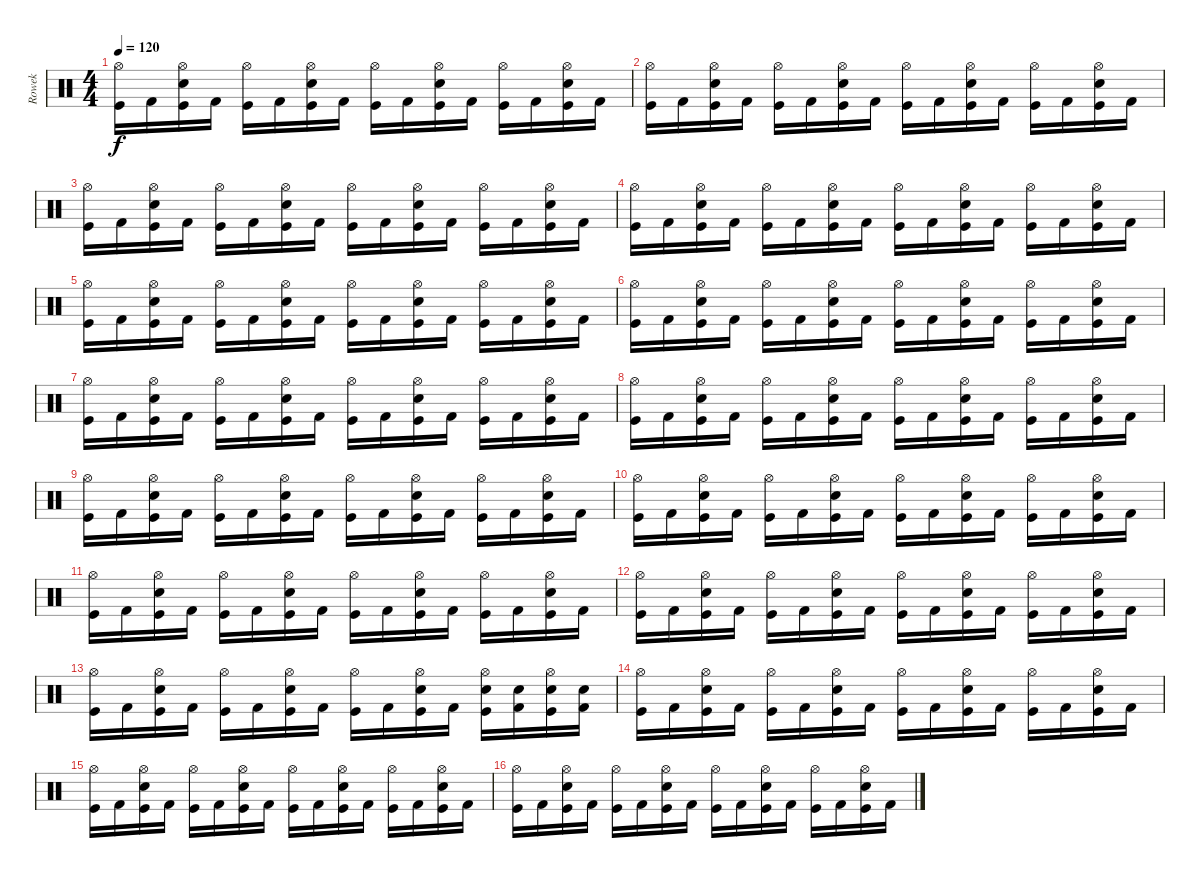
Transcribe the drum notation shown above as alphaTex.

\track ("Rowek" "Rowek") {instrument percussion}
\staff {score}
\articulation defaults
\ts (4 4)
\tempo 120
\clef neutral
\ks c
("Hi-Hat (open)" "Kick (hit)").16{dy f} "Kick (hit) 2".16 ("Hi-Hat (open)" "Snare (hit) 2" "Kick (hit)").16 "Kick (hit) 2".16 ("Hi-Hat (open)" "Kick (hit)").16 "Kick (hit) 2".16 ("Hi-Hat (open)" "Snare (hit) 2" "Kick (hit)").16 "Kick (hit) 2".16 ("Hi-Hat (open)" "Kick (hit)").16 "Kick (hit) 2".16 ("Hi-Hat (open)" "Snare (hit) 2" "Kick (hit)").16 "Kick (hit) 2".16 ("Hi-Hat (open)" "Kick (hit)").16 "Kick (hit) 2".16 ("Hi-Hat (open)" "Snare (hit) 2" "Kick (hit)").16 "Kick (hit) 2".16 |
("Hi-Hat (open)" "Kick (hit)").16 "Kick (hit) 2".16 ("Hi-Hat (open)" "Snare (hit) 2" "Kick (hit)").16 "Kick (hit) 2".16 ("Hi-Hat (open)" "Kick (hit)").16 "Kick (hit) 2".16 ("Hi-Hat (open)" "Snare (hit) 2" "Kick (hit)").16 "Kick (hit) 2".16 ("Hi-Hat (open)" "Kick (hit)").16 "Kick (hit) 2".16 ("Hi-Hat (open)" "Snare (hit) 2" "Kick (hit)").16 "Kick (hit) 2".16 ("Hi-Hat (open)" "Kick (hit)").16 "Kick (hit) 2".16 ("Hi-Hat (open)" "Snare (hit) 2" "Kick (hit)").16 "Kick (hit) 2".16 |
("Hi-Hat (open)" "Kick (hit)").16 "Kick (hit) 2".16 ("Hi-Hat (open)" "Snare (hit) 2" "Kick (hit)").16 "Kick (hit) 2".16 ("Hi-Hat (open)" "Kick (hit)").16 "Kick (hit) 2".16 ("Hi-Hat (open)" "Snare (hit) 2" "Kick (hit)").16 "Kick (hit) 2".16 ("Hi-Hat (open)" "Kick (hit)").16 "Kick (hit) 2".16 ("Hi-Hat (open)" "Snare (hit) 2" "Kick (hit)").16 "Kick (hit) 2".16 ("Hi-Hat (open)" "Kick (hit)").16 "Kick (hit) 2".16 ("Hi-Hat (open)" "Snare (hit) 2" "Kick (hit)").16 "Kick (hit) 2".16 |
("Hi-Hat (open)" "Kick (hit)").16 "Kick (hit) 2".16 ("Hi-Hat (open)" "Snare (hit) 2" "Kick (hit)").16 "Kick (hit) 2".16 ("Hi-Hat (open)" "Kick (hit)").16 "Kick (hit) 2".16 ("Hi-Hat (open)" "Snare (hit) 2" "Kick (hit)").16 "Kick (hit) 2".16 ("Hi-Hat (open)" "Kick (hit)").16 "Kick (hit) 2".16 ("Hi-Hat (open)" "Snare (hit) 2" "Kick (hit)").16 "Kick (hit) 2".16 ("Hi-Hat (open)" "Kick (hit)").16 "Kick (hit) 2".16 ("Hi-Hat (open)" "Snare (hit) 2" "Kick (hit)").16 "Kick (hit) 2".16 |
("Hi-Hat (open)" "Kick (hit)").16 "Kick (hit) 2".16 ("Hi-Hat (open)" "Snare (hit) 2" "Kick (hit)").16 "Kick (hit) 2".16 ("Hi-Hat (open)" "Kick (hit)").16 "Kick (hit) 2".16 ("Hi-Hat (open)" "Snare (hit) 2" "Kick (hit)").16 "Kick (hit) 2".16 ("Hi-Hat (open)" "Kick (hit)").16 "Kick (hit) 2".16 ("Hi-Hat (open)" "Snare (hit) 2" "Kick (hit)").16 "Kick (hit) 2".16 ("Hi-Hat (open)" "Kick (hit)").16 "Kick (hit) 2".16 ("Hi-Hat (open)" "Snare (hit) 2" "Kick (hit)").16 "Kick (hit) 2".16 |
("Hi-Hat (open)" "Kick (hit)").16 "Kick (hit) 2".16 ("Hi-Hat (open)" "Snare (hit) 2" "Kick (hit)").16 "Kick (hit) 2".16 ("Hi-Hat (open)" "Kick (hit)").16 "Kick (hit) 2".16 ("Hi-Hat (open)" "Snare (hit) 2" "Kick (hit)").16 "Kick (hit) 2".16 ("Hi-Hat (open)" "Kick (hit)").16 "Kick (hit) 2".16 ("Hi-Hat (open)" "Snare (hit) 2" "Kick (hit)").16 "Kick (hit) 2".16 ("Hi-Hat (open)" "Kick (hit)").16 "Kick (hit) 2".16 ("Hi-Hat (open)" "Snare (hit) 2" "Kick (hit)").16 "Kick (hit) 2".16 |
("Hi-Hat (open)" "Kick (hit)").16 "Kick (hit) 2".16 ("Hi-Hat (open)" "Snare (hit) 2" "Kick (hit)").16 "Kick (hit) 2".16 ("Hi-Hat (open)" "Kick (hit)").16 "Kick (hit) 2".16 ("Hi-Hat (open)" "Snare (hit) 2" "Kick (hit)").16 "Kick (hit) 2".16 ("Hi-Hat (open)" "Kick (hit)").16 "Kick (hit) 2".16 ("Hi-Hat (open)" "Snare (hit) 2" "Kick (hit)").16 "Kick (hit) 2".16 ("Hi-Hat (open)" "Kick (hit)").16 "Kick (hit) 2".16 ("Hi-Hat (open)" "Snare (hit) 2" "Kick (hit)").16 "Kick (hit) 2".16 |
("Hi-Hat (open)" "Kick (hit)").16 "Kick (hit) 2".16 ("Hi-Hat (open)" "Snare (hit) 2" "Kick (hit)").16 "Kick (hit) 2".16 ("Hi-Hat (open)" "Kick (hit)").16 "Kick (hit) 2".16 ("Hi-Hat (open)" "Snare (hit) 2" "Kick (hit)").16 "Kick (hit) 2".16 ("Hi-Hat (open)" "Kick (hit)").16 "Kick (hit) 2".16 ("Hi-Hat (open)" "Snare (hit) 2" "Kick (hit)").16 "Kick (hit) 2".16 ("Hi-Hat (open)" "Kick (hit)").16 "Kick (hit) 2".16 ("Hi-Hat (open)" "Snare (hit) 2" "Kick (hit)").16 "Kick (hit) 2".16 |
("Hi-Hat (open)" "Kick (hit)").16 "Kick (hit) 2".16 ("Hi-Hat (open)" "Snare (hit) 2" "Kick (hit)").16 "Kick (hit) 2".16 ("Hi-Hat (open)" "Kick (hit)").16 "Kick (hit) 2".16 ("Hi-Hat (open)" "Snare (hit) 2" "Kick (hit)").16 "Kick (hit) 2".16 ("Hi-Hat (open)" "Kick (hit)").16 "Kick (hit) 2".16 ("Hi-Hat (open)" "Snare (hit) 2" "Kick (hit)").16 "Kick (hit) 2".16 ("Hi-Hat (open)" "Kick (hit)").16 "Kick (hit) 2".16 ("Hi-Hat (open)" "Snare (hit) 2" "Kick (hit)").16 "Kick (hit) 2".16 |
("Hi-Hat (open)" "Kick (hit)").16 "Kick (hit) 2".16 ("Hi-Hat (open)" "Snare (hit) 2" "Kick (hit)").16 "Kick (hit) 2".16 ("Hi-Hat (open)" "Kick (hit)").16 "Kick (hit) 2".16 ("Hi-Hat (open)" "Snare (hit) 2" "Kick (hit)").16 "Kick (hit) 2".16 ("Hi-Hat (open)" "Kick (hit)").16 "Kick (hit) 2".16 ("Hi-Hat (open)" "Snare (hit) 2" "Kick (hit)").16 "Kick (hit) 2".16 ("Hi-Hat (open)" "Kick (hit)").16 "Kick (hit) 2".16 ("Hi-Hat (open)" "Snare (hit) 2" "Kick (hit)").16 "Kick (hit) 2".16 |
("Hi-Hat (open)" "Kick (hit)").16 "Kick (hit) 2".16 ("Hi-Hat (open)" "Snare (hit) 2" "Kick (hit)").16 "Kick (hit) 2".16 ("Hi-Hat (open)" "Kick (hit)").16 "Kick (hit) 2".16 ("Hi-Hat (open)" "Snare (hit) 2" "Kick (hit)").16 "Kick (hit) 2".16 ("Hi-Hat (open)" "Kick (hit)").16 "Kick (hit) 2".16 ("Hi-Hat (open)" "Snare (hit) 2" "Kick (hit)").16 "Kick (hit) 2".16 ("Hi-Hat (open)" "Kick (hit)").16 "Kick (hit) 2".16 ("Hi-Hat (open)" "Snare (hit) 2" "Kick (hit)").16 "Kick (hit) 2".16 |
("Hi-Hat (open)" "Kick (hit)").16 "Kick (hit) 2".16 ("Hi-Hat (open)" "Snare (hit) 2" "Kick (hit)").16 "Kick (hit) 2".16 ("Hi-Hat (open)" "Kick (hit)").16 "Kick (hit) 2".16 ("Hi-Hat (open)" "Snare (hit) 2" "Kick (hit)").16 "Kick (hit) 2".16 ("Hi-Hat (open)" "Kick (hit)").16 "Kick (hit) 2".16 ("Hi-Hat (open)" "Snare (hit) 2" "Kick (hit)").16 "Kick (hit) 2".16 ("Hi-Hat (open)" "Kick (hit)").16 "Kick (hit) 2".16 ("Hi-Hat (open)" "Snare (hit) 2" "Kick (hit)").16 "Kick (hit) 2".16 |
("Hi-Hat (open)" "Kick (hit)").16 "Kick (hit) 2".16 ("Hi-Hat (open)" "Snare (hit) 2" "Kick (hit)").16 "Kick (hit) 2".16 ("Hi-Hat (open)" "Kick (hit)").16 "Kick (hit) 2".16 ("Hi-Hat (open)" "Snare (hit) 2" "Kick (hit)").16 "Kick (hit) 2".16 ("Hi-Hat (open)" "Kick (hit)").16 "Kick (hit) 2".16 ("Hi-Hat (open)" "Snare (hit) 2" "Kick (hit)").16 "Kick (hit) 2".16 ("Hi-Hat (open)" "Snare (hit) 2" "Kick (hit)").16 ("Snare (hit) 2" "Kick (hit) 2").16 ("Hi-Hat (open)" "Snare (hit) 2" "Kick (hit)").16 ("Snare (hit) 2" "Kick (hit) 2").16 |
("Hi-Hat (open)" "Kick (hit)").16 "Kick (hit) 2".16 ("Hi-Hat (open)" "Snare (hit) 2" "Kick (hit)").16 "Kick (hit) 2".16 ("Hi-Hat (open)" "Kick (hit)").16 "Kick (hit) 2".16 ("Hi-Hat (open)" "Snare (hit) 2" "Kick (hit)").16 "Kick (hit) 2".16 ("Hi-Hat (open)" "Kick (hit)").16 "Kick (hit) 2".16 ("Hi-Hat (open)" "Snare (hit) 2" "Kick (hit)").16 "Kick (hit) 2".16 ("Hi-Hat (open)" "Kick (hit)").16 "Kick (hit) 2".16 ("Hi-Hat (open)" "Snare (hit) 2" "Kick (hit)").16 "Kick (hit) 2".16 |
("Hi-Hat (open)" "Kick (hit)").16 "Kick (hit) 2".16 ("Hi-Hat (open)" "Snare (hit) 2" "Kick (hit)").16 "Kick (hit) 2".16 ("Hi-Hat (open)" "Kick (hit)").16 "Kick (hit) 2".16 ("Hi-Hat (open)" "Snare (hit) 2" "Kick (hit)").16 "Kick (hit) 2".16 ("Hi-Hat (open)" "Kick (hit)").16 "Kick (hit) 2".16 ("Hi-Hat (open)" "Snare (hit) 2" "Kick (hit)").16 "Kick (hit) 2".16 ("Hi-Hat (open)" "Kick (hit)").16 "Kick (hit) 2".16 ("Hi-Hat (open)" "Snare (hit) 2" "Kick (hit)").16 "Kick (hit) 2".16 |
("Hi-Hat (open)" "Kick (hit)").16 "Kick (hit) 2".16 ("Hi-Hat (open)" "Snare (hit) 2" "Kick (hit)").16 "Kick (hit) 2".16 ("Hi-Hat (open)" "Kick (hit)").16 "Kick (hit) 2".16 ("Hi-Hat (open)" "Snare (hit) 2" "Kick (hit)").16 "Kick (hit) 2".16 ("Hi-Hat (open)" "Kick (hit)").16 "Kick (hit) 2".16 ("Hi-Hat (open)" "Snare (hit) 2" "Kick (hit)").16 "Kick (hit) 2".16 ("Hi-Hat (open)" "Kick (hit)").16 "Kick (hit) 2".16 ("Hi-Hat (open)" "Snare (hit) 2" "Kick (hit)").16 "Kick (hit) 2".16
